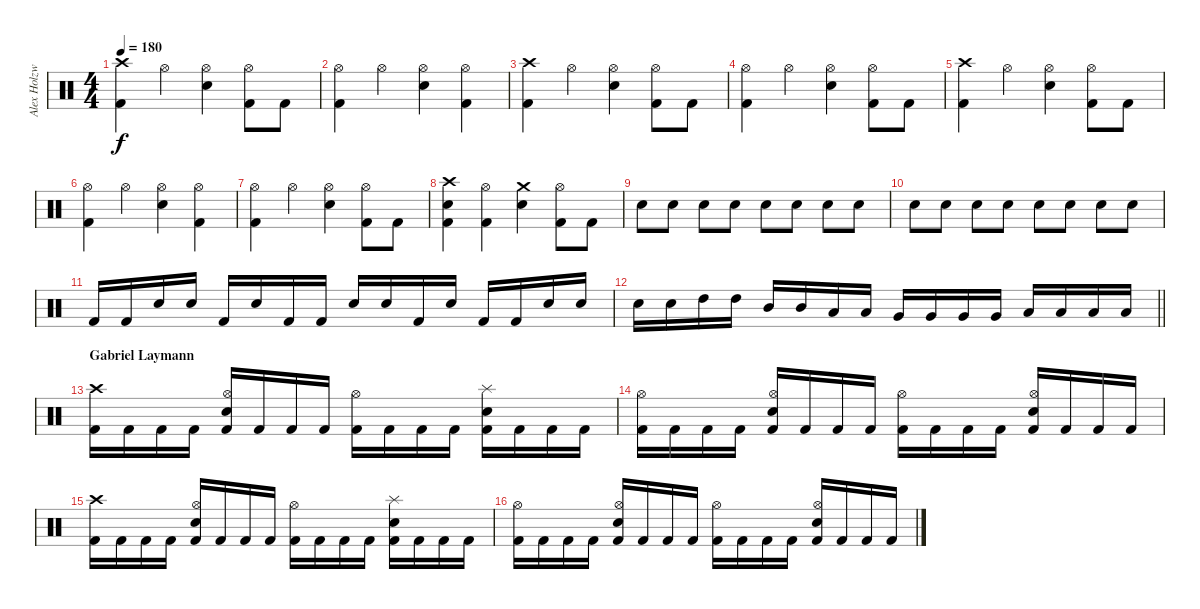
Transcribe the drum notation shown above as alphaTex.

\track ("Alex Holzwarth" "Alex Holzw") {instrument percussion}
\staff {score}
\articulation defaults
\ts (4 4)
\tempo 180
\clef neutral
\ks c
("Crash high (hit)" "Kick (hit) 2").4{dy f} "Hi-Hat (open)".4 ("Hi-Hat (open)" "Electric Snare (hit)").4 ("Hi-Hat (open)" "Kick (hit) 2").8 "Kick (hit) 2".8 |
("Hi-Hat (open)" "Kick (hit) 2").4 "Hi-Hat (open)".4 ("Hi-Hat (open)" "Electric Snare (hit)").4 ("Hi-Hat (open)" "Kick (hit) 2").4 |
("Crash high (hit)" "Kick (hit) 2").4 "Hi-Hat (open)".4 ("Hi-Hat (open)" "Electric Snare (hit)").4 ("Hi-Hat (open)" "Kick (hit) 2").8 "Kick (hit) 2".8 |
("Hi-Hat (open)" "Kick (hit) 2").4 "Hi-Hat (open)".4 ("Hi-Hat (open)" "Electric Snare (hit)").4 ("Hi-Hat (open)" "Kick (hit) 2").8 "Kick (hit) 2".8 |
("Crash high (hit)" "Kick (hit) 2").4 "Hi-Hat (open)".4 ("Hi-Hat (open)" "Electric Snare (hit)").4 ("Hi-Hat (open)" "Kick (hit) 2").8 "Kick (hit) 2".8 |
("Hi-Hat (open)" "Kick (hit) 2").4 "Hi-Hat (open)".4 ("Hi-Hat (open)" "Electric Snare (hit)").4 ("Hi-Hat (open)" "Kick (hit) 2").4 |
("Hi-Hat (open)" "Kick (hit) 2").4 "Hi-Hat (open)".4 ("Hi-Hat (open)" "Electric Snare (hit)").4 ("Hi-Hat (open)" "Kick (hit) 2").8 "Kick (hit) 2".8 |
("Crash high (hit)" "Electric Snare (hit)" "Kick (hit) 2").4 ("Hi-Hat (open)" "Kick (hit) 2").4 ("Crash medium (hit)" "Electric Snare (hit)").4 ("Hi-Hat (open)" "Kick (hit) 2").8 "Kick (hit) 2".8 |
"Electric Snare (hit)".8 "Electric Snare (hit)".8 "Electric Snare (hit)".8 "Electric Snare (hit)".8 "Electric Snare (hit)".8 "Electric Snare (hit)".8 "Electric Snare (hit)".8 "Electric Snare (hit)".8 |
"Electric Snare (hit)".8 "Electric Snare (hit)".8 "Electric Snare (hit)".8 "Electric Snare (hit)".8 "Electric Snare (hit)".8 "Electric Snare (hit)".8 "Electric Snare (hit)".8 "Electric Snare (hit)".8 |
"Kick (hit) 2".16 "Kick (hit) 2".16 "Electric Snare (hit)".16 "Electric Snare (hit)".16 "Kick (hit) 2".16 "Electric Snare (hit)".16 "Kick (hit) 2".16 "Kick (hit) 2".16 "Electric Snare (hit)".16 "Electric Snare (hit)".16 "Kick (hit) 2".16 "Electric Snare (hit)".16 "Kick (hit) 2".16 "Kick (hit) 2".16 "Electric Snare (hit)".16 "Electric Snare (hit)".16 |
\barLineRight lightlight "Electric Snare (hit)".16 "Electric Snare (hit)".16 "High Tom (hit)".16 "High Tom (hit)".16 "Mid Tom (hit)".16 "Mid Tom (hit)".16 "Low Tom (hit)".16 "Low Tom (hit)".16 "Very Low Tom (hit)".16 "Very Low Tom (hit)".16 "Very Low Tom (hit)".16 "Very Low Tom (hit)".16 "Low Floor Tom (hit)".16 "Low Floor Tom (hit)".16 "Low Floor Tom (hit)".16 "Low Floor Tom (hit)".16
|
\section ("" "Gabriel Laymann")
("Crash high (hit)" "Kick (hit) 2").16 "Kick (hit) 2".16 "Kick (hit) 2".16 "Kick (hit) 2".16 ("Hi-Hat (open)" "Electric Snare (hit)" "Kick (hit) 2").16 "Kick (hit) 2".16 "Kick (hit) 2".16 "Kick (hit) 2".16 ("Hi-Hat (open)" "Kick (hit) 2").16 "Kick (hit) 2".16 "Kick (hit) 2".16 "Kick (hit) 2".16 ("Splash (hit)" "Electric Snare (hit)" "Kick (hit) 2").16 "Kick (hit) 2".16 "Kick (hit) 2".16 "Kick (hit) 2".16 |
("Hi-Hat (open)" "Kick (hit) 2").16 "Kick (hit) 2".16 "Kick (hit) 2".16 "Kick (hit) 2".16 ("Hi-Hat (open)" "Electric Snare (hit)" "Kick (hit) 2").16 "Kick (hit) 2".16 "Kick (hit) 2".16 "Kick (hit) 2".16 ("Hi-Hat (open)" "Kick (hit) 2").16 "Kick (hit) 2".16 "Kick (hit) 2".16 "Kick (hit) 2".16 ("Hi-Hat (open)" "Electric Snare (hit)" "Kick (hit) 2").16 "Kick (hit) 2".16 "Kick (hit) 2".16 "Kick (hit) 2".16 |
("Crash high (hit)" "Kick (hit) 2").16 "Kick (hit) 2".16 "Kick (hit) 2".16 "Kick (hit) 2".16 ("Hi-Hat (open)" "Electric Snare (hit)" "Kick (hit) 2").16 "Kick (hit) 2".16 "Kick (hit) 2".16 "Kick (hit) 2".16 ("Hi-Hat (open)" "Kick (hit) 2").16 "Kick (hit) 2".16 "Kick (hit) 2".16 "Kick (hit) 2".16 ("Splash (hit)" "Electric Snare (hit)" "Kick (hit) 2").16 "Kick (hit) 2".16 "Kick (hit) 2".16 "Kick (hit) 2".16 |
("Hi-Hat (open)" "Kick (hit) 2").16 "Kick (hit) 2".16 "Kick (hit) 2".16 "Kick (hit) 2".16 ("Hi-Hat (open)" "Electric Snare (hit)" "Kick (hit) 2").16 "Kick (hit) 2".16 "Kick (hit) 2".16 "Kick (hit) 2".16 ("Hi-Hat (open)" "Kick (hit) 2").16 "Kick (hit) 2".16 "Kick (hit) 2".16 "Kick (hit) 2".16 ("Hi-Hat (open)" "Electric Snare (hit)" "Kick (hit) 2").16 "Kick (hit) 2".16 "Kick (hit) 2".16 "Kick (hit) 2".16
